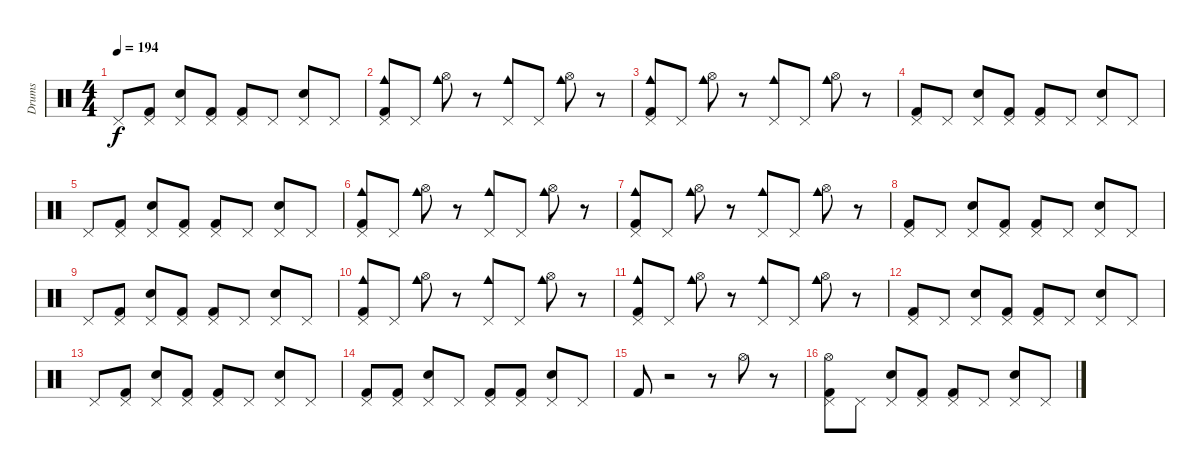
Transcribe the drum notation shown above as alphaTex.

\track ("Drums" "Drums") {instrument percussion}
\staff {score}
\articulation defaults
\ts (4 4)
\tempo 194
\clef neutral
\ks c "Pedal Hi-Hat (hit)".8{dy f}
("Kick (hit) 2" "Pedal Hi-Hat (hit)").8 ("Electric Snare (hit)" "Pedal Hi-Hat (hit)").8 ("Kick (hit) 2" "Pedal Hi-Hat (hit)").8 ("Kick (hit) 2" "Pedal Hi-Hat (hit)").8 "Pedal Hi-Hat (hit)".8 ("Electric Snare (hit)" "Pedal Hi-Hat (hit)").8 "Pedal Hi-Hat (hit)".8 |
("Pedal Hi-Hat (hit)" "Kick (hit) 2" "Cowbell medium (hit)").8 "Pedal Hi-Hat (hit)".8 ("Hi-Hat (open)" "Cowbell medium (hit)").8 r.8 ("Pedal Hi-Hat (hit)" "Cowbell medium (hit)").8 "Pedal Hi-Hat (hit)".8 ("Hi-Hat (open)" "Cowbell medium (hit)").8 r.8 |
("Kick (hit) 2" "Cowbell medium (hit)" "Pedal Hi-Hat (hit)").8 "Pedal Hi-Hat (hit)".8 ("Cowbell medium (hit)" "Hi-Hat (open)").8 r.8 ("Pedal Hi-Hat (hit)" "Cowbell medium (hit)").8 "Pedal Hi-Hat (hit)".8 ("Hi-Hat (open)" "Cowbell medium (hit)").8 r.8 |
("Kick (hit) 2" "Pedal Hi-Hat (hit)").8 "Pedal Hi-Hat (hit)".8 ("Pedal Hi-Hat (hit)" "Electric Snare (hit)").8 ("Kick (hit) 2" "Pedal Hi-Hat (hit)").8 ("Pedal Hi-Hat (hit)" "Kick (hit) 2").8 "Pedal Hi-Hat (hit)".8 ("Electric Snare (hit)" "Pedal Hi-Hat (hit)").8 "Pedal Hi-Hat (hit)".8 |
"Pedal Hi-Hat (hit)".8 ("Kick (hit) 2" "Pedal Hi-Hat (hit)").8 ("Electric Snare (hit)" "Pedal Hi-Hat (hit)").8 ("Pedal Hi-Hat (hit)" "Kick (hit) 2").8 ("Kick (hit) 2" "Pedal Hi-Hat (hit)").8 "Pedal Hi-Hat (hit)".8 ("Electric Snare (hit)" "Pedal Hi-Hat (hit)").8 "Pedal Hi-Hat (hit)".8 |
("Kick (hit) 2" "Pedal Hi-Hat (hit)" "Cowbell medium (hit)").8 "Pedal Hi-Hat (hit)".8 ("Cowbell medium (hit)" "Hi-Hat (open)").8 r.8 ("Cowbell medium (hit)" "Pedal Hi-Hat (hit)").8 "Pedal Hi-Hat (hit)".8 ("Hi-Hat (open)" "Cowbell medium (hit)").8 r.8 |
("Pedal Hi-Hat (hit)" "Kick (hit) 2" "Cowbell medium (hit)").8 "Pedal Hi-Hat (hit)".8 ("Cowbell medium (hit)" "Hi-Hat (open)").8 r.8 ("Cowbell medium (hit)" "Pedal Hi-Hat (hit)").8 "Pedal Hi-Hat (hit)".8 ("Cowbell medium (hit)" "Hi-Hat (open)").8 r.8 |
("Kick (hit) 2" "Pedal Hi-Hat (hit)").8 "Pedal Hi-Hat (hit)".8 ("Electric Snare (hit)" "Pedal Hi-Hat (hit)").8 ("Pedal Hi-Hat (hit)" "Kick (hit) 2").8 ("Pedal Hi-Hat (hit)" "Kick (hit) 2").8 "Pedal Hi-Hat (hit)".8 ("Pedal Hi-Hat (hit)" "Electric Snare (hit)").8 "Pedal Hi-Hat (hit)".8 |
"Pedal Hi-Hat (hit)".8 ("Kick (hit) 2" "Pedal Hi-Hat (hit)").8 ("Electric Snare (hit)" "Pedal Hi-Hat (hit)").8 ("Kick (hit) 2" "Pedal Hi-Hat (hit)").8 ("Kick (hit) 2" "Pedal Hi-Hat (hit)").8 "Pedal Hi-Hat (hit)".8 ("Pedal Hi-Hat (hit)" "Electric Snare (hit)").8 "Pedal Hi-Hat (hit)".8 |
("Pedal Hi-Hat (hit)" "Kick (hit) 2" "Cowbell medium (hit)").8 "Pedal Hi-Hat (hit)".8 ("Hi-Hat (open)" "Cowbell medium (hit)").8 r.8 ("Cowbell medium (hit)" "Pedal Hi-Hat (hit)").8 "Pedal Hi-Hat (hit)".8 ("Cowbell medium (hit)" "Hi-Hat (open)").8 r.8 |
("Pedal Hi-Hat (hit)" "Cowbell medium (hit)" "Kick (hit) 2").8 "Pedal Hi-Hat (hit)".8 ("Hi-Hat (open)" "Cowbell medium (hit)").8 r.8 ("Cowbell medium (hit)" "Pedal Hi-Hat (hit)").8 "Pedal Hi-Hat (hit)".8 ("Hi-Hat (open)" "Cowbell medium (hit)").8 r.8 |
("Kick (hit) 2" "Pedal Hi-Hat (hit)").8 "Pedal Hi-Hat (hit)".8 ("Pedal Hi-Hat (hit)" "Electric Snare (hit)").8 ("Kick (hit) 2" "Pedal Hi-Hat (hit)").8 ("Pedal Hi-Hat (hit)" "Kick (hit) 2").8 "Pedal Hi-Hat (hit)".8 ("Electric Snare (hit)" "Pedal Hi-Hat (hit)").8 "Pedal Hi-Hat (hit)".8 |
"Pedal Hi-Hat (hit)".8 ("Pedal Hi-Hat (hit)" "Kick (hit) 2").8 ("Electric Snare (hit)" "Pedal Hi-Hat (hit)").8 ("Pedal Hi-Hat (hit)" "Kick (hit) 2").8 ("Kick (hit) 2" "Pedal Hi-Hat (hit)").8 "Pedal Hi-Hat (hit)".8 ("Electric Snare (hit)" "Pedal Hi-Hat (hit)").8 "Pedal Hi-Hat (hit)".8 |
("Kick (hit) 2" "Pedal Hi-Hat (hit)").8 ("Kick (hit) 2" "Pedal Hi-Hat (hit)").8 ("Electric Snare (hit)" "Pedal Hi-Hat (hit)").8 "Pedal Hi-Hat (hit)".8 ("Kick (hit) 2" "Pedal Hi-Hat (hit)").8 ("Kick (hit) 2" "Pedal Hi-Hat (hit)").8 ("Pedal Hi-Hat (hit)" "Electric Snare (hit)").8 "Pedal Hi-Hat (hit)".8 |
"Kick (hit) 2".8 r.2 r.8 "Hi-Hat (open)".8 r.8 |
("Pedal Hi-Hat (hit)" "Kick (hit) 2" "Hi-Hat (open)").8 "Pedal Hi-Hat (hit)".8 ("Electric Snare (hit)" "Pedal Hi-Hat (hit)").8 ("Pedal Hi-Hat (hit)" "Kick (hit) 2").8 ("Kick (hit) 2" "Pedal Hi-Hat (hit)").8 "Pedal Hi-Hat (hit)".8 ("Pedal Hi-Hat (hit)" "Electric Snare (hit)").8 "Pedal Hi-Hat (hit)".8
